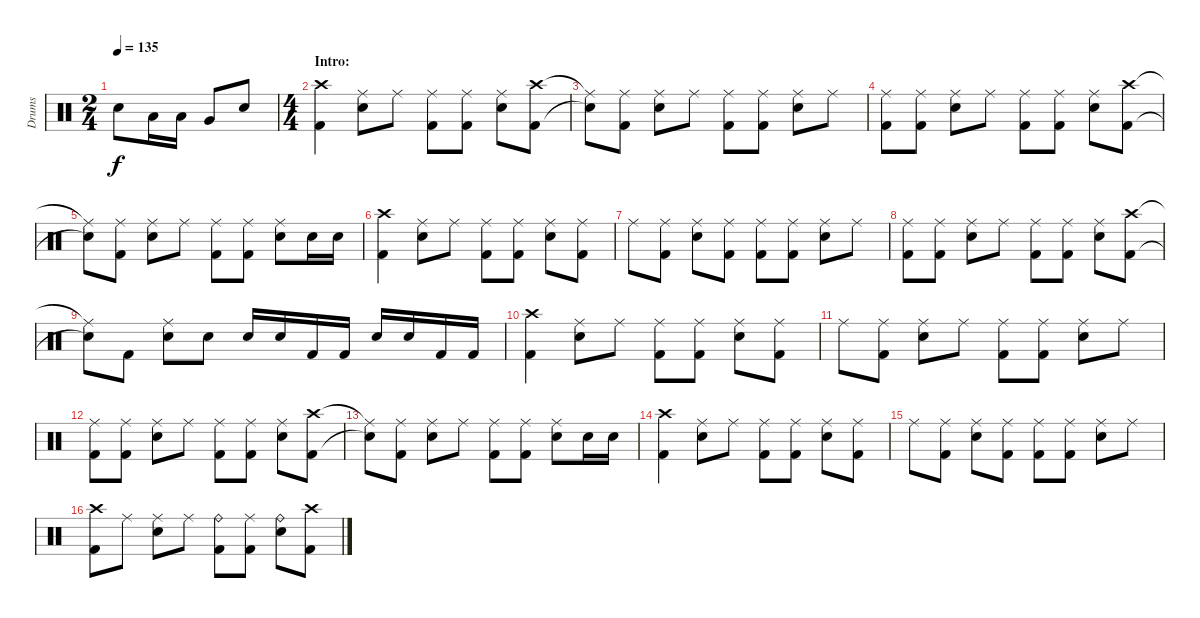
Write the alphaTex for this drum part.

\track ("Drums" "Drums") {instrument percussion}
\staff {score}
\articulation defaults
\ts (2 4)
\tempo 135
\clef neutral
\ks c "Electric Snare (hit)".8{dy f} "Low Tom (hit)".16 "Low Tom (hit)".16 "Very Low Tom (hit)".8 "Electric Snare (hit)".8
|
\ts (4 4)
\section ("" "Intro: ")
("Crash high (hit)" "Kick (hit) 2").4 ("Ride (middle)" "Electric Snare (hit)").8 "Ride (middle)".8 ("Ride (middle)" "Kick (hit) 2").8 ("Ride (middle)" "Kick (hit) 2").8 ("Ride (middle)" "Electric Snare (hit)").8 ("Crash high (hit)" "Kick (hit) 2").8 |
("Ride (middle)"{t} "Snare (hit)"{t}).8 ("Ride (middle)" "Kick (hit) 2").8 ("Ride (middle)" "Electric Snare (hit)").8 "Ride (middle)".8 ("Ride (middle)" "Kick (hit) 2").8 ("Ride (middle)" "Kick (hit) 2").8 ("Ride (middle)" "Electric Snare (hit)").8 "Ride (middle)".8 |
("Ride (middle)" "Kick (hit) 2").8 ("Ride (middle)" "Kick (hit) 2").8 ("Ride (middle)" "Electric Snare (hit)").8 "Ride (middle)".8 ("Ride (middle)" "Kick (hit) 2").8 ("Ride (middle)" "Kick (hit) 2").8 ("Ride (middle)" "Electric Snare (hit)").8 ("Crash high (hit)" "Kick (hit) 2").8 |
("Ride (middle)"{t} "Snare (hit)"{t}).8 ("Ride (middle)" "Kick (hit) 2").8 ("Ride (middle)" "Electric Snare (hit)").8 "Ride (middle)".8 ("Ride (middle)" "Kick (hit) 2").8 ("Ride (middle)" "Kick (hit) 2").8 ("Ride (middle)" "Electric Snare (hit)").8 "Electric Snare (hit)".16 "Electric Snare (hit)".16 |
("Crash high (hit)" "Kick (hit) 2").4 ("Ride (middle)" "Electric Snare (hit)").8 "Ride (middle)".8 ("Ride (middle)" "Kick (hit) 2").8 ("Ride (middle)" "Kick (hit) 2").8 ("Ride (middle)" "Electric Snare (hit)").8 ("Ride (middle)" "Kick (hit) 2").8 |
"Ride (middle)".8 ("Ride (middle)" "Kick (hit) 2").8 ("Ride (middle)" "Electric Snare (hit)").8 ("Ride (middle)" "Kick (hit) 2").8 ("Ride (middle)" "Kick (hit) 2").8 ("Ride (middle)" "Kick (hit) 2").8 ("Ride (middle)" "Electric Snare (hit)").8 "Ride (middle)".8 |
("Ride (middle)" "Kick (hit) 2").8 ("Ride (middle)" "Kick (hit) 2").8 ("Ride (middle)" "Electric Snare (hit)").8 "Ride (middle)".8 ("Ride (middle)" "Kick (hit) 2").8 ("Ride (middle)" "Kick (hit) 2").8 ("Ride (middle)" "Electric Snare (hit)").8 ("Crash high (hit)" "Kick (hit) 2").8 |
("Ride (middle)"{t} "Snare (hit)"{t}).8 "Kick (hit) 2".8 ("Ride (middle)" "Electric Snare (hit)").8 "Electric Snare (hit)".8 "Electric Snare (hit)".16 "Electric Snare (hit)".16 "Kick (hit) 2".16 "Kick (hit) 2".16 "Electric Snare (hit)".16 "Electric Snare (hit)".16 "Kick (hit) 2".16 "Kick (hit) 2".16 |
("Crash high (hit)" "Kick (hit) 2").4 ("Ride (middle)" "Electric Snare (hit)").8 "Ride (middle)".8 ("Ride (middle)" "Kick (hit) 2").8 ("Ride (middle)" "Kick (hit) 2").8 ("Ride (middle)" "Electric Snare (hit)").8 ("Ride (middle)" "Kick (hit) 2").8 |
"Ride (middle)".8 ("Ride (middle)" "Kick (hit) 2").8 ("Ride (middle)" "Electric Snare (hit)").8 "Ride (middle)".8 ("Ride (middle)" "Kick (hit) 2").8 ("Ride (middle)" "Kick (hit) 2").8 ("Ride (middle)" "Electric Snare (hit)").8 "Ride (middle)".8 |
("Ride (middle)" "Kick (hit) 2").8 ("Ride (middle)" "Kick (hit) 2").8 ("Ride (middle)" "Electric Snare (hit)").8 "Ride (middle)".8 ("Ride (middle)" "Kick (hit) 2").8 ("Ride (middle)" "Kick (hit) 2").8 ("Ride (middle)" "Electric Snare (hit)").8 ("Crash high (hit)" "Kick (hit) 2").8 |
("Ride (middle)"{t} "Snare (hit)"{t}).8 ("Ride (middle)" "Kick (hit) 2").8 ("Ride (middle)" "Electric Snare (hit)").8 "Ride (middle)".8 ("Ride (middle)" "Kick (hit) 2").8 ("Ride (middle)" "Kick (hit) 2").8 ("Ride (middle)" "Electric Snare (hit)").8 "Electric Snare (hit)".16 "Electric Snare (hit)".16 |
("Crash high (hit)" "Kick (hit) 2").4 ("Ride (middle)" "Electric Snare (hit)").8 "Ride (middle)".8 ("Ride (middle)" "Kick (hit) 2").8 ("Ride (middle)" "Kick (hit) 2").8 ("Ride (middle)" "Electric Snare (hit)").8 ("Ride (middle)" "Kick (hit) 2").8 |
"Ride (middle)".8 ("Ride (middle)" "Kick (hit) 2").8 ("Ride (middle)" "Electric Snare (hit)").8 ("Ride (middle)" "Kick (hit) 2").8 ("Ride (middle)" "Kick (hit) 2").8 ("Ride (middle)" "Kick (hit) 2").8 ("Ride (middle)" "Electric Snare (hit)").8 "Ride (middle)".8 |
("Crash high (hit)" "Kick (hit) 2").8 "Ride (middle)".8 ("Ride (middle)" "Electric Snare (hit)").8 "Ride (middle)".8 ("Ride (bell)" "Kick (hit) 2").8 ("Ride (middle)" "Kick (hit) 2").8 ("Ride (bell)" "Electric Snare (hit)").8 ("Crash high (hit)" "Kick (hit) 2").8
